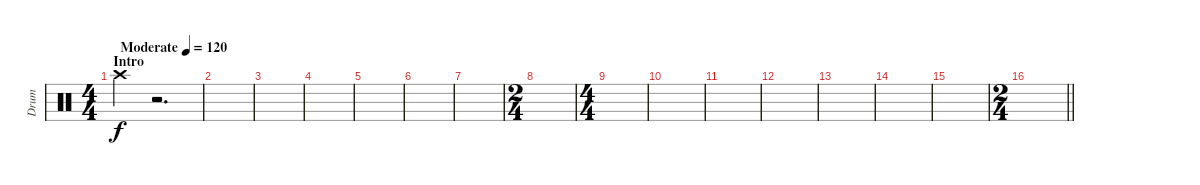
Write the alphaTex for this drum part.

\track ("Drum" "Drum") {instrument percussion}
\staff {score}
\articulation defaults
\ts (4 4)
\section ("" "Intro")
\tempo (120 "Moderate")
\clef neutral
\ks c "Crash high (hit)".4{dy f}
r.2{d} |
|
|
|
|
|
|
\ts (2 4)
|
\ts (4 4)
|
|
|
|
|
|
|
\ts (2 4)
\barLineRight lightlight
